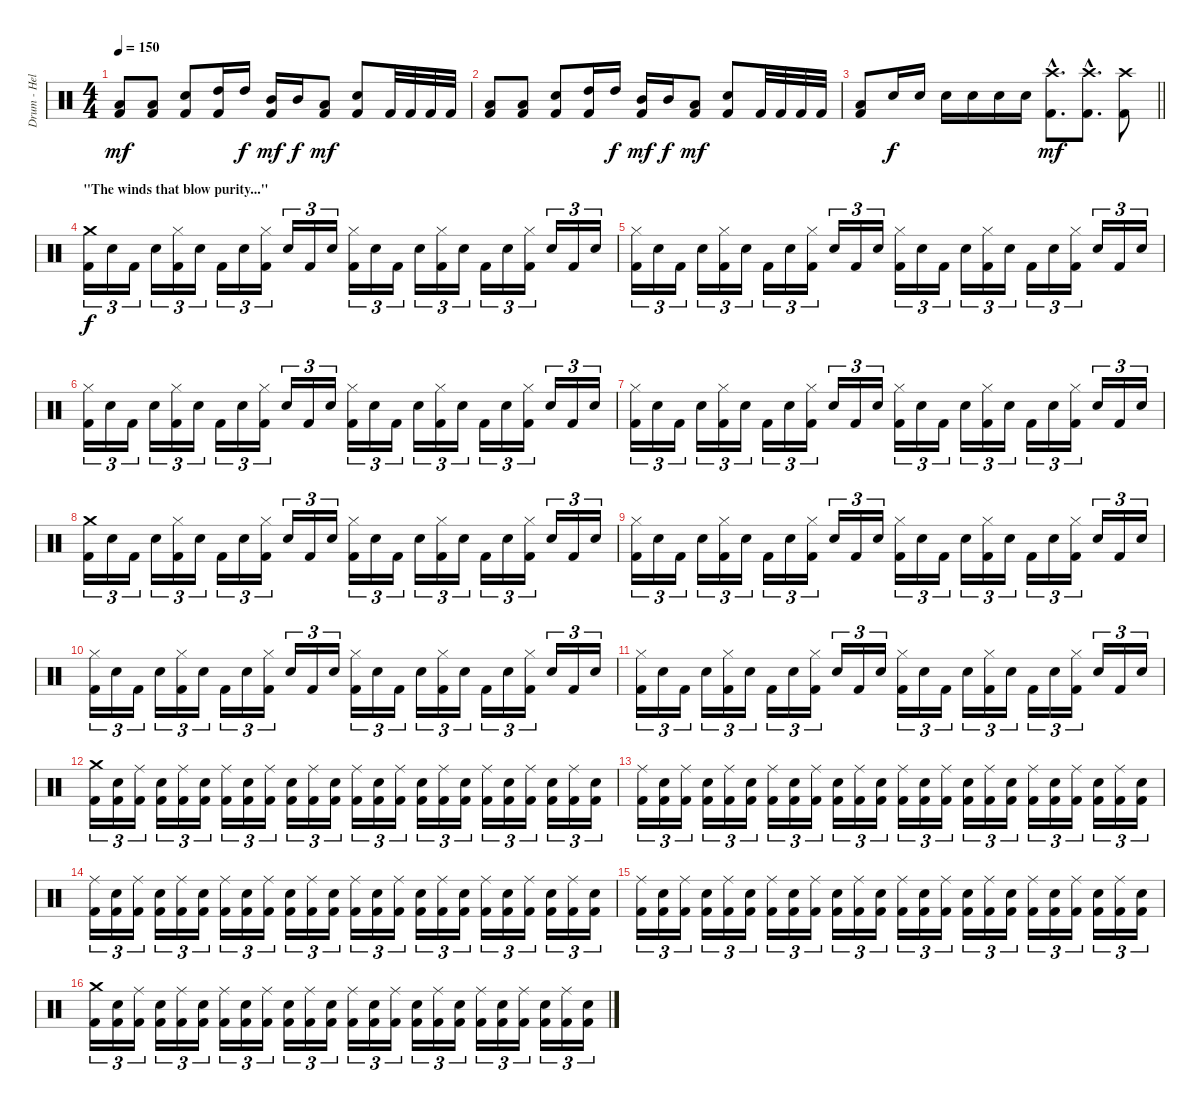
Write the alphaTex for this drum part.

\track ("Drum - Hellhammer" "Drum - Hel") {instrument percussion}
\staff {score}
\articulation defaults
\ts (4 4)
\tempo 150
\clef neutral
\ks c
("Low Tom (hit)" "Kick (hit) 2").8{dy mf} ("Low Tom (hit)" "Kick (hit) 2").8 ("Electric Snare (hit)" "Kick (hit) 2").8 ("High Tom (hit)" "Kick (hit) 2").16 "High Tom (hit)".16{dy f} ("Mid Tom (hit)" "Kick (hit) 2").16{dy mf} "Mid Tom (hit)".16{dy f} ("Low Tom (hit)" "Kick (hit) 2").8{dy mf} ("Electric Snare (hit)" "Kick (hit) 2").8 "Kick (hit) 2".32 "Kick (hit) 2".32 "Kick (hit) 2".32 "Kick (hit) 2".32 |
("Low Tom (hit)" "Kick (hit) 2").8 ("Low Tom (hit)" "Kick (hit) 2").8 ("Electric Snare (hit)" "Kick (hit) 2").8 ("High Tom (hit)" "Kick (hit) 2").16 "High Tom (hit)".16{dy f} ("Mid Tom (hit)" "Kick (hit) 2").16{dy mf} "Mid Tom (hit)".16{dy f} ("Low Tom (hit)" "Kick (hit) 2").8{dy mf} ("Electric Snare (hit)" "Kick (hit) 2").8 "Kick (hit) 2".32 "Kick (hit) 2".32 "Kick (hit) 2".32 "Kick (hit) 2".32 |
\barLineRight lightlight
("Low Tom (hit)" "Kick (hit) 2").8 "Electric Snare (hit)".16{dy f} "Electric Snare (hit)".16 "Electric Snare (hit)".16 "Electric Snare (hit)".16 "Electric Snare (hit)".16 "Electric Snare (hit)".16 ("Crash high (hit)"{hac} "Kick (hit) 2"{hac}).8{d dy mf} ("Crash high (hit)"{hac} "Kick (hit) 2"{hac}).8{d} ("Crash high (hit)" "Kick (hit) 2").8 |
\section ("" "\"The winds that blow purity...\"")
("Crash medium (hit)" "Kick (hit) 2").16{tu (3 2) dy f} "Electric Snare (hit)".16{tu (3 2)} "Kick (hit) 2".16{tu (3 2)} "Electric Snare (hit)".16{tu (3 2)} ("Hi-Hat (closed)" "Kick (hit) 2").16{tu (3 2)} "Electric Snare (hit)".16{tu (3 2)} "Kick (hit) 2".16{tu (3 2)} "Electric Snare (hit)".16{tu (3 2)} ("Hi-Hat (closed)" "Kick (hit) 2").16{tu (3 2)} "Electric Snare (hit)".16{tu (3 2)} "Kick (hit) 2".16{tu (3 2)} "Electric Snare (hit)".16{tu (3 2)} ("Hi-Hat (closed)" "Kick (hit) 2").16{tu (3 2)} "Electric Snare (hit)".16{tu (3 2)} "Kick (hit) 2".16{tu (3 2)} "Electric Snare (hit)".16{tu (3 2)} ("Hi-Hat (closed)" "Kick (hit) 2").16{tu (3 2)} "Electric Snare (hit)".16{tu (3 2)} "Kick (hit) 2".16{tu (3 2)} "Electric Snare (hit)".16{tu (3 2)} ("Hi-Hat (closed)" "Kick (hit) 2").16{tu (3 2)} "Electric Snare (hit)".16{tu (3 2)} "Kick (hit) 2".16{tu (3 2)} "Electric Snare (hit)".16{tu (3 2)} |
("Hi-Hat (closed)" "Kick (hit) 2").16{tu (3 2)} "Electric Snare (hit)".16{tu (3 2)} "Kick (hit) 2".16{tu (3 2)} "Electric Snare (hit)".16{tu (3 2)} ("Hi-Hat (closed)" "Kick (hit) 2").16{tu (3 2)} "Electric Snare (hit)".16{tu (3 2)} "Kick (hit) 2".16{tu (3 2)} "Electric Snare (hit)".16{tu (3 2)} ("Hi-Hat (closed)" "Kick (hit) 2").16{tu (3 2)} "Electric Snare (hit)".16{tu (3 2)} "Kick (hit) 2".16{tu (3 2)} "Electric Snare (hit)".16{tu (3 2)} ("Hi-Hat (closed)" "Kick (hit) 2").16{tu (3 2)} "Electric Snare (hit)".16{tu (3 2)} "Kick (hit) 2".16{tu (3 2)} "Electric Snare (hit)".16{tu (3 2)} ("Hi-Hat (closed)" "Kick (hit) 2").16{tu (3 2)} "Electric Snare (hit)".16{tu (3 2)} "Kick (hit) 2".16{tu (3 2)} "Electric Snare (hit)".16{tu (3 2)} ("Hi-Hat (closed)" "Kick (hit) 2").16{tu (3 2)} "Electric Snare (hit)".16{tu (3 2)} "Kick (hit) 2".16{tu (3 2)} "Electric Snare (hit)".16{tu (3 2)} |
("Hi-Hat (closed)" "Kick (hit) 2").16{tu (3 2)} "Electric Snare (hit)".16{tu (3 2)} "Kick (hit) 2".16{tu (3 2)} "Electric Snare (hit)".16{tu (3 2)} ("Hi-Hat (closed)" "Kick (hit) 2").16{tu (3 2)} "Electric Snare (hit)".16{tu (3 2)} "Kick (hit) 2".16{tu (3 2)} "Electric Snare (hit)".16{tu (3 2)} ("Hi-Hat (closed)" "Kick (hit) 2").16{tu (3 2)} "Electric Snare (hit)".16{tu (3 2)} "Kick (hit) 2".16{tu (3 2)} "Electric Snare (hit)".16{tu (3 2)} ("Hi-Hat (closed)" "Kick (hit) 2").16{tu (3 2)} "Electric Snare (hit)".16{tu (3 2)} "Kick (hit) 2".16{tu (3 2)} "Electric Snare (hit)".16{tu (3 2)} ("Hi-Hat (closed)" "Kick (hit) 2").16{tu (3 2)} "Electric Snare (hit)".16{tu (3 2)} "Kick (hit) 2".16{tu (3 2)} "Electric Snare (hit)".16{tu (3 2)} ("Hi-Hat (closed)" "Kick (hit) 2").16{tu (3 2)} "Electric Snare (hit)".16{tu (3 2)} "Kick (hit) 2".16{tu (3 2)} "Electric Snare (hit)".16{tu (3 2)} |
("Hi-Hat (closed)" "Kick (hit) 2").16{tu (3 2)} "Electric Snare (hit)".16{tu (3 2)} "Kick (hit) 2".16{tu (3 2)} "Electric Snare (hit)".16{tu (3 2)} ("Hi-Hat (closed)" "Kick (hit) 2").16{tu (3 2)} "Electric Snare (hit)".16{tu (3 2)} "Kick (hit) 2".16{tu (3 2)} "Electric Snare (hit)".16{tu (3 2)} ("Hi-Hat (closed)" "Kick (hit) 2").16{tu (3 2)} "Electric Snare (hit)".16{tu (3 2)} "Kick (hit) 2".16{tu (3 2)} "Electric Snare (hit)".16{tu (3 2)} ("Hi-Hat (closed)" "Kick (hit) 2").16{tu (3 2)} "Electric Snare (hit)".16{tu (3 2)} "Kick (hit) 2".16{tu (3 2)} "Electric Snare (hit)".16{tu (3 2)} ("Hi-Hat (closed)" "Kick (hit) 2").16{tu (3 2)} "Electric Snare (hit)".16{tu (3 2)} "Kick (hit) 2".16{tu (3 2)} "Electric Snare (hit)".16{tu (3 2)} ("Hi-Hat (closed)" "Kick (hit) 2").16{tu (3 2)} "Electric Snare (hit)".16{tu (3 2)} "Kick (hit) 2".16{tu (3 2)} "Electric Snare (hit)".16{tu (3 2)} |
("Crash medium (hit)" "Kick (hit) 2").16{tu (3 2)} "Electric Snare (hit)".16{tu (3 2)} "Kick (hit) 2".16{tu (3 2)} "Electric Snare (hit)".16{tu (3 2)} ("Hi-Hat (closed)" "Kick (hit) 2").16{tu (3 2)} "Electric Snare (hit)".16{tu (3 2)} "Kick (hit) 2".16{tu (3 2)} "Electric Snare (hit)".16{tu (3 2)} ("Hi-Hat (closed)" "Kick (hit) 2").16{tu (3 2)} "Electric Snare (hit)".16{tu (3 2)} "Kick (hit) 2".16{tu (3 2)} "Electric Snare (hit)".16{tu (3 2)} ("Hi-Hat (closed)" "Kick (hit) 2").16{tu (3 2)} "Electric Snare (hit)".16{tu (3 2)} "Kick (hit) 2".16{tu (3 2)} "Electric Snare (hit)".16{tu (3 2)} ("Hi-Hat (closed)" "Kick (hit) 2").16{tu (3 2)} "Electric Snare (hit)".16{tu (3 2)} "Kick (hit) 2".16{tu (3 2)} "Electric Snare (hit)".16{tu (3 2)} ("Hi-Hat (closed)" "Kick (hit) 2").16{tu (3 2)} "Electric Snare (hit)".16{tu (3 2)} "Kick (hit) 2".16{tu (3 2)} "Electric Snare (hit)".16{tu (3 2)} |
("Hi-Hat (closed)" "Kick (hit) 2").16{tu (3 2)} "Electric Snare (hit)".16{tu (3 2)} "Kick (hit) 2".16{tu (3 2)} "Electric Snare (hit)".16{tu (3 2)} ("Hi-Hat (closed)" "Kick (hit) 2").16{tu (3 2)} "Electric Snare (hit)".16{tu (3 2)} "Kick (hit) 2".16{tu (3 2)} "Electric Snare (hit)".16{tu (3 2)} ("Hi-Hat (closed)" "Kick (hit) 2").16{tu (3 2)} "Electric Snare (hit)".16{tu (3 2)} "Kick (hit) 2".16{tu (3 2)} "Electric Snare (hit)".16{tu (3 2)} ("Hi-Hat (closed)" "Kick (hit) 2").16{tu (3 2)} "Electric Snare (hit)".16{tu (3 2)} "Kick (hit) 2".16{tu (3 2)} "Electric Snare (hit)".16{tu (3 2)} ("Hi-Hat (closed)" "Kick (hit) 2").16{tu (3 2)} "Electric Snare (hit)".16{tu (3 2)} "Kick (hit) 2".16{tu (3 2)} "Electric Snare (hit)".16{tu (3 2)} ("Hi-Hat (closed)" "Kick (hit) 2").16{tu (3 2)} "Electric Snare (hit)".16{tu (3 2)} "Kick (hit) 2".16{tu (3 2)} "Electric Snare (hit)".16{tu (3 2)} |
("Hi-Hat (closed)" "Kick (hit) 2").16{tu (3 2)} "Electric Snare (hit)".16{tu (3 2)} "Kick (hit) 2".16{tu (3 2)} "Electric Snare (hit)".16{tu (3 2)} ("Hi-Hat (closed)" "Kick (hit) 2").16{tu (3 2)} "Electric Snare (hit)".16{tu (3 2)} "Kick (hit) 2".16{tu (3 2)} "Electric Snare (hit)".16{tu (3 2)} ("Hi-Hat (closed)" "Kick (hit) 2").16{tu (3 2)} "Electric Snare (hit)".16{tu (3 2)} "Kick (hit) 2".16{tu (3 2)} "Electric Snare (hit)".16{tu (3 2)} ("Hi-Hat (closed)" "Kick (hit) 2").16{tu (3 2)} "Electric Snare (hit)".16{tu (3 2)} "Kick (hit) 2".16{tu (3 2)} "Electric Snare (hit)".16{tu (3 2)} ("Hi-Hat (closed)" "Kick (hit) 2").16{tu (3 2)} "Electric Snare (hit)".16{tu (3 2)} "Kick (hit) 2".16{tu (3 2)} "Electric Snare (hit)".16{tu (3 2)} ("Hi-Hat (closed)" "Kick (hit) 2").16{tu (3 2)} "Electric Snare (hit)".16{tu (3 2)} "Kick (hit) 2".16{tu (3 2)} "Electric Snare (hit)".16{tu (3 2)} |
("Hi-Hat (closed)" "Kick (hit) 2").16{tu (3 2)} "Electric Snare (hit)".16{tu (3 2)} "Kick (hit) 2".16{tu (3 2)} "Electric Snare (hit)".16{tu (3 2)} ("Hi-Hat (closed)" "Kick (hit) 2").16{tu (3 2)} "Electric Snare (hit)".16{tu (3 2)} "Kick (hit) 2".16{tu (3 2)} "Electric Snare (hit)".16{tu (3 2)} ("Hi-Hat (closed)" "Kick (hit) 2").16{tu (3 2)} "Electric Snare (hit)".16{tu (3 2)} "Kick (hit) 2".16{tu (3 2)} "Electric Snare (hit)".16{tu (3 2)} ("Hi-Hat (closed)" "Kick (hit) 2").16{tu (3 2)} "Electric Snare (hit)".16{tu (3 2)} "Kick (hit) 2".16{tu (3 2)} "Electric Snare (hit)".16{tu (3 2)} ("Hi-Hat (closed)" "Kick (hit) 2").16{tu (3 2)} "Electric Snare (hit)".16{tu (3 2)} "Kick (hit) 2".16{tu (3 2)} "Electric Snare (hit)".16{tu (3 2)} ("Hi-Hat (closed)" "Kick (hit) 2").16{tu (3 2)} "Electric Snare (hit)".16{tu (3 2)} "Kick (hit) 2".16{tu (3 2)} "Electric Snare (hit)".16{tu (3 2)} |
("Crash medium (hit)" "Kick (hit) 2").16{tu (3 2)} ("Electric Snare (hit)" "Kick (hit) 2").16{tu (3 2)} ("Ride (middle)" "Kick (hit) 2").16{tu (3 2)} ("Electric Snare (hit)" "Kick (hit) 2").16{tu (3 2)} ("Ride (middle)" "Kick (hit) 2").16{tu (3 2)} ("Electric Snare (hit)" "Kick (hit) 2").16{tu (3 2)} ("Ride (middle)" "Kick (hit) 2").16{tu (3 2)} ("Electric Snare (hit)" "Kick (hit) 2").16{tu (3 2)} ("Ride (middle)" "Kick (hit) 2").16{tu (3 2)} ("Electric Snare (hit)" "Kick (hit) 2").16{tu (3 2)} ("Ride (middle)" "Kick (hit) 2").16{tu (3 2)} ("Electric Snare (hit)" "Kick (hit) 2").16{tu (3 2)} ("Ride (middle)" "Kick (hit) 2").16{tu (3 2)} ("Electric Snare (hit)" "Kick (hit) 2").16{tu (3 2)} ("Ride (middle)" "Kick (hit) 2").16{tu (3 2)} ("Electric Snare (hit)" "Kick (hit) 2").16{tu (3 2)} ("Ride (middle)" "Kick (hit) 2").16{tu (3 2)} ("Electric Snare (hit)" "Kick (hit) 2").16{tu (3 2)} ("Ride (middle)" "Kick (hit) 2").16{tu (3 2)} ("Electric Snare (hit)" "Kick (hit) 2").16{tu (3 2)} ("Ride (middle)" "Kick (hit) 2").16{tu (3 2)} ("Electric Snare (hit)" "Kick (hit) 2").16{tu (3 2)} ("Ride (middle)" "Kick (hit) 2").16{tu (3 2)} ("Electric Snare (hit)" "Kick (hit) 2").16{tu (3 2)} |
("Ride (middle)" "Kick (hit) 2").16{tu (3 2)} ("Electric Snare (hit)" "Kick (hit) 2").16{tu (3 2)} ("Ride (middle)" "Kick (hit) 2").16{tu (3 2)} ("Electric Snare (hit)" "Kick (hit) 2").16{tu (3 2)} ("Ride (middle)" "Kick (hit) 2").16{tu (3 2)} ("Electric Snare (hit)" "Kick (hit) 2").16{tu (3 2)} ("Ride (middle)" "Kick (hit) 2").16{tu (3 2)} ("Electric Snare (hit)" "Kick (hit) 2").16{tu (3 2)} ("Ride (middle)" "Kick (hit) 2").16{tu (3 2)} ("Electric Snare (hit)" "Kick (hit) 2").16{tu (3 2)} ("Ride (middle)" "Kick (hit) 2").16{tu (3 2)} ("Electric Snare (hit)" "Kick (hit) 2").16{tu (3 2)} ("Ride (middle)" "Kick (hit) 2").16{tu (3 2)} ("Electric Snare (hit)" "Kick (hit) 2").16{tu (3 2)} ("Ride (middle)" "Kick (hit) 2").16{tu (3 2)} ("Electric Snare (hit)" "Kick (hit) 2").16{tu (3 2)} ("Ride (middle)" "Kick (hit) 2").16{tu (3 2)} ("Electric Snare (hit)" "Kick (hit) 2").16{tu (3 2)} ("Ride (middle)" "Kick (hit) 2").16{tu (3 2)} ("Electric Snare (hit)" "Kick (hit) 2").16{tu (3 2)} ("Ride (middle)" "Kick (hit) 2").16{tu (3 2)} ("Electric Snare (hit)" "Kick (hit) 2").16{tu (3 2)} ("Ride (middle)" "Kick (hit) 2").16{tu (3 2)} ("Electric Snare (hit)" "Kick (hit) 2").16{tu (3 2)} |
("Ride (middle)" "Kick (hit) 2").16{tu (3 2)} ("Electric Snare (hit)" "Kick (hit) 2").16{tu (3 2)} ("Ride (middle)" "Kick (hit) 2").16{tu (3 2)} ("Electric Snare (hit)" "Kick (hit) 2").16{tu (3 2)} ("Ride (middle)" "Kick (hit) 2").16{tu (3 2)} ("Electric Snare (hit)" "Kick (hit) 2").16{tu (3 2)} ("Ride (middle)" "Kick (hit) 2").16{tu (3 2)} ("Electric Snare (hit)" "Kick (hit) 2").16{tu (3 2)} ("Ride (middle)" "Kick (hit) 2").16{tu (3 2)} ("Electric Snare (hit)" "Kick (hit) 2").16{tu (3 2)} ("Ride (middle)" "Kick (hit) 2").16{tu (3 2)} ("Electric Snare (hit)" "Kick (hit) 2").16{tu (3 2)} ("Ride (middle)" "Kick (hit) 2").16{tu (3 2)} ("Electric Snare (hit)" "Kick (hit) 2").16{tu (3 2)} ("Ride (middle)" "Kick (hit) 2").16{tu (3 2)} ("Electric Snare (hit)" "Kick (hit) 2").16{tu (3 2)} ("Ride (middle)" "Kick (hit) 2").16{tu (3 2)} ("Electric Snare (hit)" "Kick (hit) 2").16{tu (3 2)} ("Ride (middle)" "Kick (hit) 2").16{tu (3 2)} ("Electric Snare (hit)" "Kick (hit) 2").16{tu (3 2)} ("Ride (middle)" "Kick (hit) 2").16{tu (3 2)} ("Electric Snare (hit)" "Kick (hit) 2").16{tu (3 2)} ("Ride (middle)" "Kick (hit) 2").16{tu (3 2)} ("Electric Snare (hit)" "Kick (hit) 2").16{tu (3 2)} |
("Ride (middle)" "Kick (hit) 2").16{tu (3 2)} ("Electric Snare (hit)" "Kick (hit) 2").16{tu (3 2)} ("Ride (middle)" "Kick (hit) 2").16{tu (3 2)} ("Electric Snare (hit)" "Kick (hit) 2").16{tu (3 2)} ("Ride (middle)" "Kick (hit) 2").16{tu (3 2)} ("Electric Snare (hit)" "Kick (hit) 2").16{tu (3 2)} ("Ride (middle)" "Kick (hit) 2").16{tu (3 2)} ("Electric Snare (hit)" "Kick (hit) 2").16{tu (3 2)} ("Ride (middle)" "Kick (hit) 2").16{tu (3 2)} ("Electric Snare (hit)" "Kick (hit) 2").16{tu (3 2)} ("Ride (middle)" "Kick (hit) 2").16{tu (3 2)} ("Electric Snare (hit)" "Kick (hit) 2").16{tu (3 2)} ("Ride (middle)" "Kick (hit) 2").16{tu (3 2)} ("Electric Snare (hit)" "Kick (hit) 2").16{tu (3 2)} ("Ride (middle)" "Kick (hit) 2").16{tu (3 2)} ("Electric Snare (hit)" "Kick (hit) 2").16{tu (3 2)} ("Ride (middle)" "Kick (hit) 2").16{tu (3 2)} ("Electric Snare (hit)" "Kick (hit) 2").16{tu (3 2)} ("Ride (middle)" "Kick (hit) 2").16{tu (3 2)} ("Electric Snare (hit)" "Kick (hit) 2").16{tu (3 2)} ("Ride (middle)" "Kick (hit) 2").16{tu (3 2)} ("Electric Snare (hit)" "Kick (hit) 2").16{tu (3 2)} ("Ride (middle)" "Kick (hit) 2").16{tu (3 2)} ("Electric Snare (hit)" "Kick (hit) 2").16{tu (3 2)} |
("Crash medium (hit)" "Kick (hit) 2").16{tu (3 2)} ("Electric Snare (hit)" "Kick (hit) 2").16{tu (3 2)} ("Ride (middle)" "Kick (hit) 2").16{tu (3 2)} ("Electric Snare (hit)" "Kick (hit) 2").16{tu (3 2)} ("Ride (middle)" "Kick (hit) 2").16{tu (3 2)} ("Electric Snare (hit)" "Kick (hit) 2").16{tu (3 2)} ("Ride (middle)" "Kick (hit) 2").16{tu (3 2)} ("Electric Snare (hit)" "Kick (hit) 2").16{tu (3 2)} ("Ride (middle)" "Kick (hit) 2").16{tu (3 2)} ("Electric Snare (hit)" "Kick (hit) 2").16{tu (3 2)} ("Ride (middle)" "Kick (hit) 2").16{tu (3 2)} ("Electric Snare (hit)" "Kick (hit) 2").16{tu (3 2)} ("Ride (middle)" "Kick (hit) 2").16{tu (3 2)} ("Electric Snare (hit)" "Kick (hit) 2").16{tu (3 2)} ("Ride (middle)" "Kick (hit) 2").16{tu (3 2)} ("Electric Snare (hit)" "Kick (hit) 2").16{tu (3 2)} ("Ride (middle)" "Kick (hit) 2").16{tu (3 2)} ("Electric Snare (hit)" "Kick (hit) 2").16{tu (3 2)} ("Ride (middle)" "Kick (hit) 2").16{tu (3 2)} ("Electric Snare (hit)" "Kick (hit) 2").16{tu (3 2)} ("Ride (middle)" "Kick (hit) 2").16{tu (3 2)} ("Electric Snare (hit)" "Kick (hit) 2").16{tu (3 2)} ("Ride (middle)" "Kick (hit) 2").16{tu (3 2)} ("Electric Snare (hit)" "Kick (hit) 2").16{tu (3 2)}
